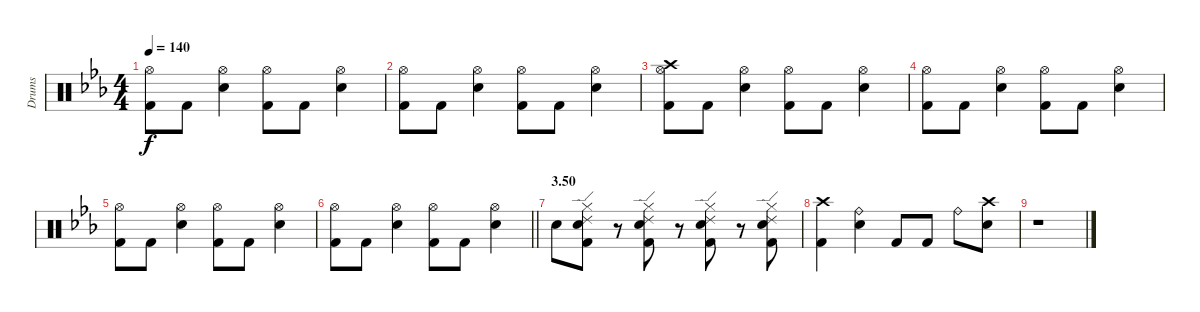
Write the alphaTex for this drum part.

\track ("Drums" "Drums") {instrument percussion}
\staff {score}
\articulation defaults
\ts (4 4)
\tempo 140
\clef neutral
\ks cminor
("Hi-Hat (open)" "Kick (hit) 2").8{dy f} "Kick (hit) 2".8 ("Hi-Hat (open)" "Electric Snare (hit)").4 ("Hi-Hat (open)" "Kick (hit) 2").8 "Kick (hit) 2".8 ("Hi-Hat (open)" "Electric Snare (hit)").4 |
("Hi-Hat (open)" "Kick (hit) 2").8 "Kick (hit) 2".8 ("Hi-Hat (open)" "Electric Snare (hit)").4 ("Hi-Hat (open)" "Kick (hit) 2").8 "Kick (hit) 2".8 ("Hi-Hat (open)" "Electric Snare (hit)").4 |
("Crash high (hit)" "Hi-Hat (open)" "Kick (hit) 2").8 "Kick (hit) 2".8 ("Hi-Hat (open)" "Electric Snare (hit)").4 ("Hi-Hat (open)" "Kick (hit) 2").8 "Kick (hit) 2".8 ("Hi-Hat (open)" "Electric Snare (hit)").4 |
("Hi-Hat (open)" "Kick (hit) 2").8 "Kick (hit) 2".8 ("Hi-Hat (open)" "Electric Snare (hit)").4 ("Hi-Hat (open)" "Kick (hit) 2").8 "Kick (hit) 2".8 ("Hi-Hat (open)" "Electric Snare (hit)").4 |
("Hi-Hat (open)" "Kick (hit) 2").8 "Kick (hit) 2".8 ("Hi-Hat (open)" "Electric Snare (hit)").4 ("Hi-Hat (open)" "Kick (hit) 2").8 "Kick (hit) 2".8 ("Hi-Hat (open)" "Electric Snare (hit)").4 |
\barLineRight lightlight
("Hi-Hat (open)" "Kick (hit) 2").8 "Kick (hit) 2".8 ("Hi-Hat (open)" "Electric Snare (hit)").4 ("Hi-Hat (open)" "Kick (hit) 2").8 "Kick (hit) 2".8 ("Hi-Hat (open)" "Electric Snare (hit)").4 |
\section ("" "3.50")
"Electric Snare (hit)".8 ("Ride (edge) 2" "Hi-Hat (closed)" "Electric Snare (hit)" "Kick (hit) 2").8 r.8 ("Ride (edge) 2" "Hi-Hat (closed)" "Electric Snare (hit)" "Kick (hit) 2").8 r.8 ("Ride (edge) 2" "Hi-Hat (closed)" "Electric Snare (hit)" "Kick (hit) 2").8 r.8 ("Ride (edge) 2" "Hi-Hat (closed)" "Electric Snare (hit)" "Kick (hit) 2").8 |
("Crash high (hit)" "Kick (hit) 2").4 ("Ride (bell)" "Electric Snare (hit)").4 "Kick (hit) 2".8 "Kick (hit) 2".8 "Ride (bell)".8 ("Crash high (hit)" "Electric Snare (hit)").8 |
r.1
